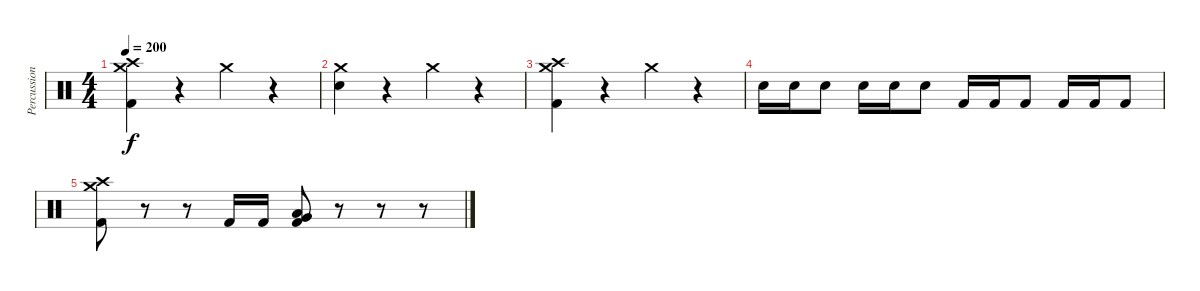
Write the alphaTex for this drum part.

\track ("Percussion" "Percussion") {instrument percussion}
\staff {score}
\articulation defaults
\ts (4 4)
\tempo 200
\clef neutral
\ks c
("Crash high (hit)" "Crash medium (hit)" "Kick (hit) 2").4{dy f} r.4 "Crash medium (hit)".4 r.4 |
("Crash medium (hit)" "Snare (hit) 2").4 r.4 "Crash medium (hit)".4 r.4 |
("Crash high (hit)" "Crash medium (hit)" "Kick (hit) 2").4 r.4 "Crash medium (hit)".4 r.4 |
"Snare (hit) 2".16 "Snare (hit) 2".16 "Snare (hit) 2".8 "Snare (hit) 2".16 "Snare (hit) 2".16 "Snare (hit) 2".8 "Kick (hit) 2".16 "Kick (hit) 2".16 "Kick (hit) 2".8 "Kick (hit) 2".16 "Kick (hit) 2".16 "Kick (hit) 2".8 |
("Crash high (hit)" "Crash medium (hit)" "Kick (hit) 2").8 r.8 r.8 "Kick (hit) 2".16 "Kick (hit) 2".16 ("Very Low Tom (hit)" "Low Floor Tom (hit)" "Kick (hit) 2").8 r.8 r.8 r.8
